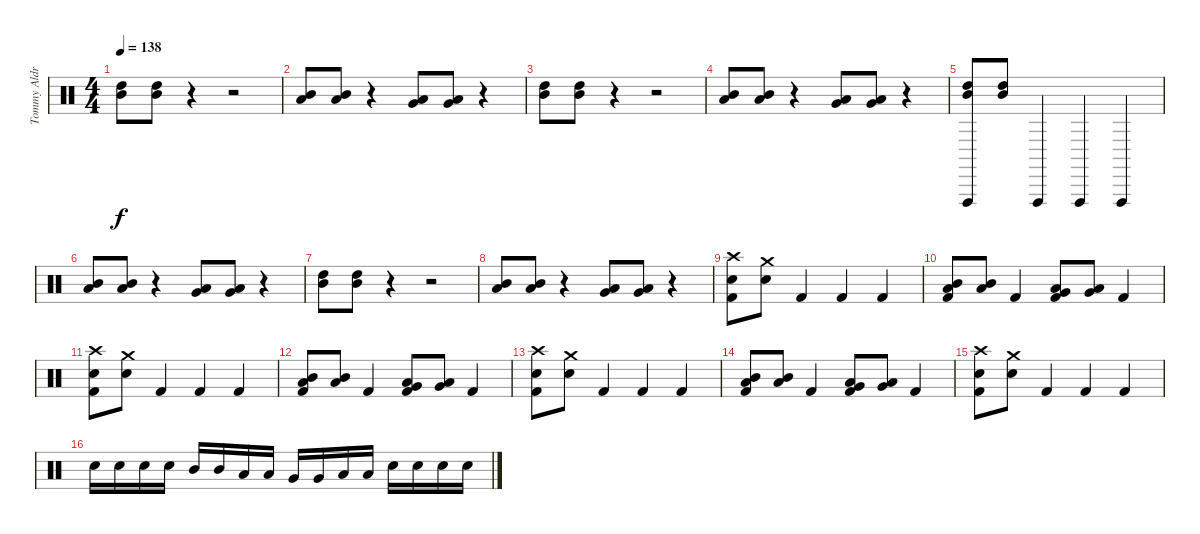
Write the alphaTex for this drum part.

\track ("Tommy Aldridge" "Tommy Aldr") {instrument percussion}
\staff {score}
\articulation defaults
\ts (4 4)
\tempo 138
\clef neutral
\ks c
("High Tom (hit)" "Mid Tom (hit)").8{dy f} ("High Tom (hit)" "Mid Tom (hit)").8 r.4 r.2 |
("Mid Tom (hit)" "Low Tom (hit)").8 ("Mid Tom (hit)" "Low Tom (hit)").8 r.4 ("Low Tom (hit)" "Very Low Tom (hit)").8 ("Low Tom (hit)" "Very Low Tom (hit)").8 r.4 |
("High Tom (hit)" "Mid Tom (hit)").8 ("High Tom (hit)" "Mid Tom (hit)").8 r.4 r.2 |
("Mid Tom (hit)" "Low Tom (hit)").8 ("Mid Tom (hit)" "Low Tom (hit)").8 r.4 ("Low Tom (hit)" "Very Low Tom (hit)").8{txt ""} ("Low Tom (hit)" "Very Low Tom (hit)").8 r.4 |
("Vibraslap (hit)" "High Tom (hit)" "Mid Tom (hit)").8 ("High Tom (hit)" "Mid Tom (hit)").8 "Vibraslap (hit)".4 "Vibraslap (hit)".4 "Vibraslap (hit)".4 |
("Mid Tom (hit)" "Low Tom (hit)").8 ("Mid Tom (hit)" "Low Tom (hit)").8 r.4 ("Low Tom (hit)" "Very Low Tom (hit)").8 ("Low Tom (hit)" "Very Low Tom (hit)").8 r.4 |
("High Tom (hit)" "Mid Tom (hit)").8 ("High Tom (hit)" "Mid Tom (hit)").8 r.4 r.2 |
("Mid Tom (hit)" "Low Tom (hit)").8 ("Mid Tom (hit)" "Low Tom (hit)").8 r.4 ("Low Tom (hit)" "Very Low Tom (hit)").8 ("Low Tom (hit)" "Very Low Tom (hit)").8 r.4 |
("Crash high (hit)" "Snare (hit) 2" "Kick (hit) 2").8 ("Crash medium (hit)" "Snare (hit) 2").8 "Kick (hit) 2".4 "Kick (hit) 2".4 "Kick (hit) 2".4 |
("Mid Tom (hit)" "Low Tom (hit)" "Kick (hit) 2").8 ("Mid Tom (hit)" "Low Tom (hit)").8 "Kick (hit) 2".4 ("Low Tom (hit)" "Very Low Tom (hit)" "Kick (hit) 2").8 ("Low Tom (hit)" "Very Low Tom (hit)").8 "Kick (hit) 2".4 |
("Crash high (hit)" "Snare (hit) 2" "Kick (hit) 2").8 ("Crash medium (hit)" "Snare (hit) 2").8 "Kick (hit) 2".4 "Kick (hit) 2".4 "Kick (hit) 2".4 |
("Mid Tom (hit)" "Low Tom (hit)" "Kick (hit) 2").8 ("Mid Tom (hit)" "Low Tom (hit)").8 "Kick (hit) 2".4 ("Low Tom (hit)" "Very Low Tom (hit)" "Kick (hit) 2").8 ("Low Tom (hit)" "Very Low Tom (hit)").8 "Kick (hit) 2".4 |
("Crash high (hit)" "Snare (hit) 2" "Kick (hit) 2").8 ("Crash medium (hit)" "Snare (hit) 2").8 "Kick (hit) 2".4 "Kick (hit) 2".4 "Kick (hit) 2".4 |
("Mid Tom (hit)" "Low Tom (hit)" "Kick (hit) 2").8 ("Mid Tom (hit)" "Low Tom (hit)").8 "Kick (hit) 2".4 ("Low Tom (hit)" "Very Low Tom (hit)" "Kick (hit) 2").8 ("Low Tom (hit)" "Very Low Tom (hit)").8 "Kick (hit) 2".4 |
("Crash high (hit)" "Snare (hit) 2" "Kick (hit) 2").8 ("Crash medium (hit)" "Snare (hit) 2").8 "Kick (hit) 2".4 "Kick (hit) 2".4 "Kick (hit) 2".4 |
"Snare (hit) 2".16 "Snare (hit) 2".16 "Snare (hit) 2".16 "Snare (hit) 2".16 "Mid Tom (hit)".16 "Mid Tom (hit)".16 "Low Tom (hit)".16 "Low Tom (hit)".16 "Very Low Tom (hit)".16 "Very Low Tom (hit)".16 "Low Floor Tom (hit)".16 "Low Floor Tom (hit)".16 "Snare (hit) 2".16 "Snare (hit) 2".16 "Snare (hit) 2".16 "Snare (hit) 2".16
